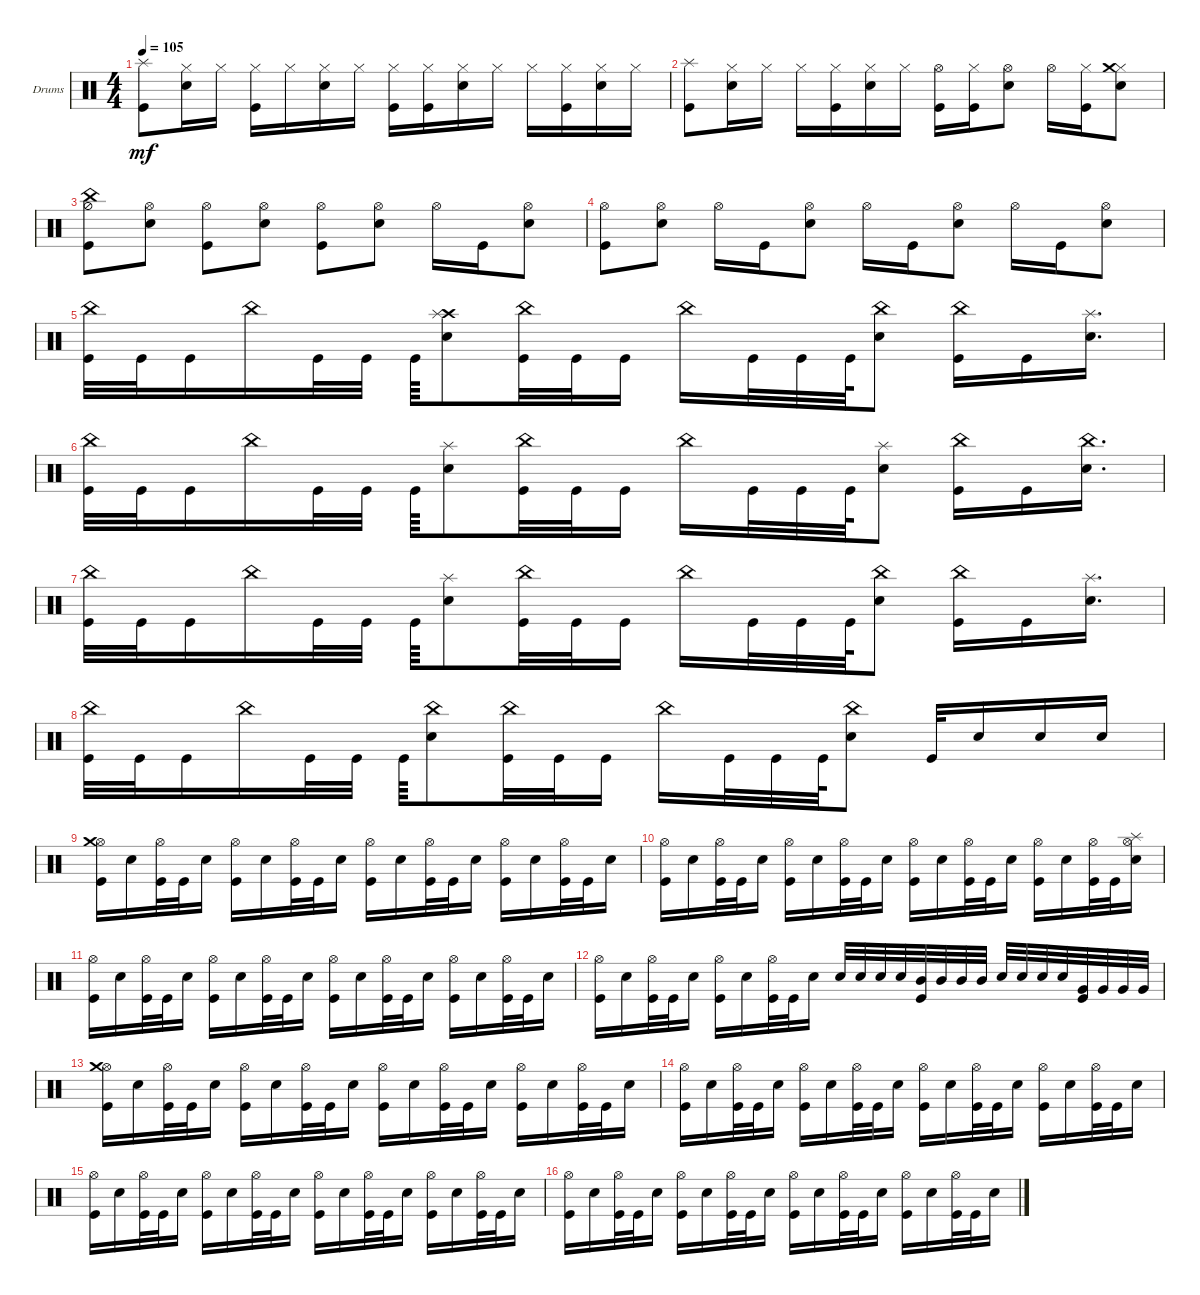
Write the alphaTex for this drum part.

\defaultSystemsLayout 4
\bracketExtendMode groupsimilarinstruments
\firstSystemTrackNameOrientation horizontal
\otherSystemsTrackNameOrientation horizontal
\track ("Hell On da Drums" "Drums") {instrument percussion}
\staff {score}
\articulation defaults
\ts (4 4)
\tempo 105
\clef neutral
\ks c
("Kick (hit)" "Splash (hit)").8{dy mf} ("Snare (hit) 2" "Hi-Hat (closed)").16 "Hi-Hat (closed)".16 ("Kick (hit)" "Hi-Hat (closed)").16 "Hi-Hat (closed)".16 ("Snare (hit) 2" "Hi-Hat (closed)").16 "Hi-Hat (closed)".16 ("Kick (hit)" "Hi-Hat (closed)").16 ("Kick (hit)" "Hi-Hat (closed)").16 ("Snare (hit) 2" "Hi-Hat (closed)").16 "Hi-Hat (closed)".16 "Hi-Hat (closed)".16 ("Kick (hit)" "Hi-Hat (closed)").16 ("Snare (hit) 2" "Hi-Hat (closed)").16 "Hi-Hat (closed)".16 |
("Kick (hit)" "Splash (hit)").8 ("Snare (hit) 2" "Hi-Hat (closed)").16 "Hi-Hat (closed)".16 "Hi-Hat (closed)".16 ("Hi-Hat (closed)" "Kick (hit)").16 ("Snare (hit) 2" "Hi-Hat (closed)").16 "Hi-Hat (closed)".16 ("Kick (hit)" "Hi-Hat (open)").16 ("Kick (hit)" "Hi-Hat (closed)").16 ("Snare (hit) 2" "Hi-Hat (open)").8 "Hi-Hat (open)".16 ("Kick (hit)" "Hi-Hat (closed)").16 ("Snare (hit) 2" "Hi-Hat (closed)" "Crash medium (hit)").8 |
("Kick (hit)" "China (hit)" "Hi-Hat (half)").8 ("Snare (hit) 2" "Hi-Hat (open)").8 ("Kick (hit)" "Hi-Hat (open)").8 ("Snare (hit) 2" "Hi-Hat (open)").8 ("Kick (hit)" "Hi-Hat (open)").8 ("Snare (hit) 2" "Hi-Hat (open)").8 "Hi-Hat (open)".16 "Kick (hit)".16 ("Snare (hit) 2" "Hi-Hat (open)").8 |
("Kick (hit)" "Hi-Hat (open)").8 ("Snare (hit) 2" "Hi-Hat (open)").8 "Hi-Hat (open)".16 "Kick (hit)".16 ("Snare (hit) 2" "Hi-Hat (open)").8 "Hi-Hat (open)".16 "Kick (hit)".16 ("Snare (hit) 2" "Hi-Hat (open)").8 "Hi-Hat (open)".16 "Kick (hit)".16 ("Snare (hit) 2" "Hi-Hat (open)").8 |
("Kick (hit)" "China (hit)").32 "Kick (hit)".32 "Kick (hit)".16 "China (hit)".16 "Kick (hit)".32 "Kick (hit)".32 "Kick (hit)".64 ("Snare (hit) 2" "Crash high (hit)" "Splash (hit)").8 ("Kick (hit)" "China (hit)").32 "Kick (hit)".32 "Kick (hit)".16 "China (hit)".16 "Kick (hit)".32 "Kick (hit)".32 "Kick (hit)".64 ("Snare (hit) 2" "China (hit)").8 ("Kick (hit)" "China (hit)").16 "Kick (hit)".16 ("Snare (hit) 2" "Splash (hit)").16{d} |
("Kick (hit)" "China (hit)").32 "Kick (hit)".32 "Kick (hit)".16 "China (hit)".16 "Kick (hit)".32 "Kick (hit)".32 "Kick (hit)".64 ("Snare (hit) 2" "Splash (hit)").8 ("Kick (hit)" "China (hit)").32 "Kick (hit)".32 "Kick (hit)".16 "China (hit)".16 "Kick (hit)".32 "Kick (hit)".32 "Kick (hit)".64 ("Snare (hit) 2" "Splash (hit)").8 ("Kick (hit)" "China (hit)").16 "Kick (hit)".16 ("China (hit)" "Snare (hit) 2").16{d} |
("Kick (hit)" "China (hit)").32 "Kick (hit)".32 "Kick (hit)".16 "China (hit)".16 "Kick (hit)".32 "Kick (hit)".32 "Kick (hit)".64 ("Snare (hit) 2" "Splash (hit)").8 ("Kick (hit)" "China (hit)").32 "Kick (hit)".32 "Kick (hit)".16 "China (hit)".16 "Kick (hit)".32 "Kick (hit)".32 "Kick (hit)".64 ("Snare (hit) 2" "China (hit)").8 ("Kick (hit)" "China (hit)").16 "Kick (hit)".16 ("Snare (hit) 2" "Splash (hit)").16{d} |
("Kick (hit)" "China (hit)").32 "Kick (hit)".32 "Kick (hit)".16 "China (hit)".16 "Kick (hit)".32 "Kick (hit)".32 "Kick (hit)".64 ("Snare (hit) 2" "China (hit)").8 ("Kick (hit)" "China (hit)").32 "Kick (hit)".32 "Kick (hit)".16 "China (hit)".16 "Kick (hit)".32 "Kick (hit)".32 "Kick (hit)".64 ("Snare (hit) 2" "China (hit)").8 "Kick (hit)".32 "Snare (hit) 2".16 "Snare (hit) 2".16 "Snare (hit) 2".16 |
("Kick (hit)" "Hi-Hat (open)" "Crash medium (hit)").16 "Snare (hit) 2".16 ("Kick (hit)" "Hi-Hat (open)").32 "Kick (hit)".32 "Snare (hit) 2".16 ("Kick (hit)" "Hi-Hat (open)").16 "Snare (hit) 2".16 ("Kick (hit)" "Hi-Hat (open)").32 "Kick (hit)".32 "Snare (hit) 2".16 ("Kick (hit)" "Hi-Hat (open)").16 "Snare (hit) 2".16 ("Kick (hit)" "Hi-Hat (open)").32 "Kick (hit)".32 "Snare (hit) 2".16 ("Kick (hit)" "Hi-Hat (open)").16 "Snare (hit) 2".16 ("Kick (hit)" "Hi-Hat (open)").32 "Kick (hit)".32 "Snare (hit) 2".16 |
("Hi-Hat (open)" "Kick (hit)").16 "Snare (hit) 2".16 ("Kick (hit)" "Hi-Hat (open)").32 "Kick (hit)".32 "Snare (hit) 2".16 ("Kick (hit)" "Hi-Hat (open)").16 "Snare (hit) 2".16 ("Kick (hit)" "Hi-Hat (open)").32 "Kick (hit)".32 "Snare (hit) 2".16 ("Kick (hit)" "Hi-Hat (open)").16 "Snare (hit) 2".16 ("Kick (hit)" "Hi-Hat (open)").32 "Kick (hit)".32 "Snare (hit) 2".16 ("Kick (hit)" "Hi-Hat (open)").16 "Snare (hit) 2".16 ("Kick (hit)" "Hi-Hat (open)").32 "Kick (hit)".32 ("Snare (hit) 2" "Hi-Hat (open)" "Splash (hit)").16 |
("Kick (hit)" "Hi-Hat (open)").16 "Snare (hit) 2".16 ("Kick (hit)" "Hi-Hat (open)").32 "Kick (hit)".32 "Snare (hit) 2".16 ("Kick (hit)" "Hi-Hat (open)").16 "Snare (hit) 2".16 ("Kick (hit)" "Hi-Hat (open)").32 "Kick (hit)".32 "Snare (hit) 2".16 ("Kick (hit)" "Hi-Hat (open)").16 "Snare (hit) 2".16 ("Kick (hit)" "Hi-Hat (open)").32 "Kick (hit)".32 "Snare (hit) 2".16 ("Kick (hit)" "Hi-Hat (open)").16 "Snare (hit) 2".16 ("Kick (hit)" "Hi-Hat (open)").32 "Kick (hit)".32 "Snare (hit) 2".16 |
("Kick (hit)" "Hi-Hat (open)").16 "Snare (hit) 2".16 ("Kick (hit)" "Hi-Hat (open)").32 "Kick (hit)".32 "Snare (hit) 2".16 ("Kick (hit)" "Hi-Hat (open)").16 "Snare (hit) 2".16 ("Kick (hit)" "Hi-Hat (open)").32 "Kick (hit)".32 "Snare (hit) 2".16 "Snare (hit) 2".32 "Snare (hit) 2".32 "Snare (hit) 2".32 "Snare (hit) 2".32 ("Mid Tom (hit)" "Kick (hit)").32 "Mid Tom (hit)".32 "Mid Tom (hit)".32 "Mid Tom (hit)".32 "Snare (hit) 2".32 "Snare (hit) 2".32 "Snare (hit) 2".32 "Snare (hit) 2".32 ("Very Low Tom (hit)" "Kick (hit)").32 "Very Low Tom (hit)".32 "Very Low Tom (hit)".32 "Very Low Tom (hit)".32 |
("Kick (hit)" "Hi-Hat (open)" "Crash medium (hit)").16 "Snare (hit) 2".16 ("Kick (hit)" "Hi-Hat (open)").32 "Kick (hit)".32 "Snare (hit) 2".16 ("Kick (hit)" "Hi-Hat (open)").16 "Snare (hit) 2".16 ("Kick (hit)" "Hi-Hat (open)").32 "Kick (hit)".32 "Snare (hit) 2".16 ("Kick (hit)" "Hi-Hat (open)").16 "Snare (hit) 2".16 ("Kick (hit)" "Hi-Hat (open)").32 "Kick (hit)".32 "Snare (hit) 2".16 ("Kick (hit)" "Hi-Hat (open)").16 "Snare (hit) 2".16 ("Kick (hit)" "Hi-Hat (open)").32 "Kick (hit)".32 "Snare (hit) 2".16 |
("Hi-Hat (open)" "Kick (hit)").16 "Snare (hit) 2".16 ("Kick (hit)" "Hi-Hat (open)").32 "Kick (hit)".32 "Snare (hit) 2".16 ("Kick (hit)" "Hi-Hat (open)").16 "Snare (hit) 2".16 ("Kick (hit)" "Hi-Hat (open)").32 "Kick (hit)".32 "Snare (hit) 2".16 ("Kick (hit)" "Hi-Hat (open)").16 "Snare (hit) 2".16 ("Kick (hit)" "Hi-Hat (open)").32 "Kick (hit)".32 "Snare (hit) 2".16 ("Kick (hit)" "Hi-Hat (open)").16 "Snare (hit) 2".16 ("Kick (hit)" "Hi-Hat (open)").32 "Kick (hit)".32 "Snare (hit) 2".16 |
("Kick (hit)" "Hi-Hat (open)").16 "Snare (hit) 2".16 ("Kick (hit)" "Hi-Hat (open)").32 "Kick (hit)".32 "Snare (hit) 2".16 ("Kick (hit)" "Hi-Hat (open)").16 "Snare (hit) 2".16 ("Kick (hit)" "Hi-Hat (open)").32 "Kick (hit)".32 "Snare (hit) 2".16 ("Kick (hit)" "Hi-Hat (open)").16 "Snare (hit) 2".16 ("Kick (hit)" "Hi-Hat (open)").32 "Kick (hit)".32 "Snare (hit) 2".16 ("Kick (hit)" "Hi-Hat (open)").16 "Snare (hit) 2".16 ("Kick (hit)" "Hi-Hat (open)").32 "Kick (hit)".32 "Snare (hit) 2".16 |
("Kick (hit)" "Hi-Hat (open)").16 "Snare (hit) 2".16 ("Kick (hit)" "Hi-Hat (open)").32 "Kick (hit)".32 "Snare (hit) 2".16 ("Kick (hit)" "Hi-Hat (open)").16 "Snare (hit) 2".16 ("Kick (hit)" "Hi-Hat (open)").32 "Kick (hit)".32 "Snare (hit) 2".16 ("Kick (hit)" "Hi-Hat (open)").16 "Snare (hit) 2".16 ("Kick (hit)" "Hi-Hat (open)").32 "Kick (hit)".32 "Snare (hit) 2".16 ("Kick (hit)" "Hi-Hat (open)").16 "Snare (hit) 2".16 ("Kick (hit)" "Hi-Hat (open)").32 "Kick (hit)".32 "Snare (hit) 2".16
